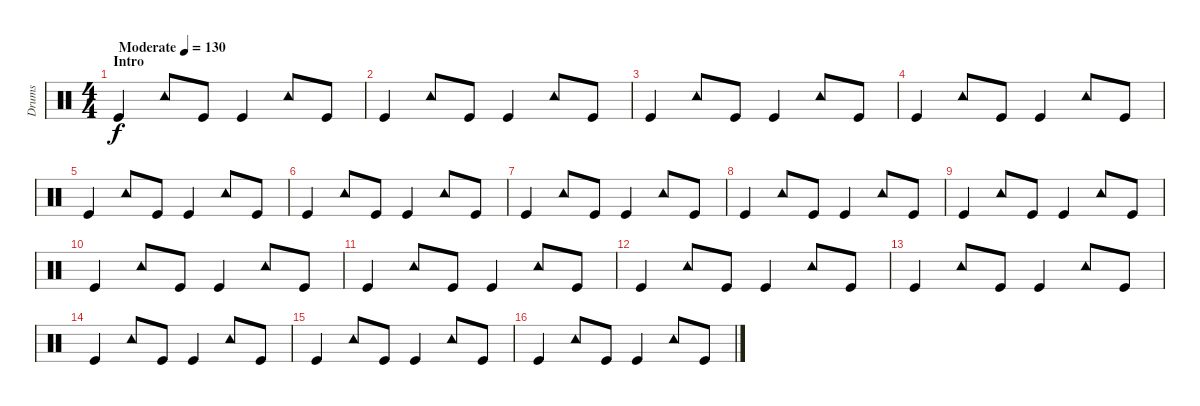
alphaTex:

\track ("Drums" "Drums") {instrument percussion}
\staff {score}
\articulation defaults
\ts (4 4)
\section ("" "Intro")
\tempo (130 "Moderate")
\clef neutral
\ks c "Kick (hit)".4{dy f volume 8} "Tambourine (hit)".8{volume 8} "Kick (hit)".8{volume 8} "Kick (hit)".4{volume 8} "Tambourine (hit)".8{volume 8} "Kick (hit)".8{volume 8}
|
"Kick (hit)".4 "Tambourine (hit)".8 "Kick (hit)".8 "Kick (hit)".4 "Tambourine (hit)".8 "Kick (hit)".8 |
"Kick (hit)".4 "Tambourine (hit)".8 "Kick (hit)".8 "Kick (hit)".4 "Tambourine (hit)".8 "Kick (hit)".8 |
"Kick (hit)".4 "Tambourine (hit)".8 "Kick (hit)".8 "Kick (hit)".4 "Tambourine (hit)".8 "Kick (hit)".8 |
"Kick (hit)".4 "Tambourine (hit)".8 "Kick (hit)".8 "Kick (hit)".4 "Tambourine (hit)".8 "Kick (hit)".8 |
"Kick (hit)".4 "Tambourine (hit)".8 "Kick (hit)".8 "Kick (hit)".4 "Tambourine (hit)".8 "Kick (hit)".8 |
"Kick (hit)".4 "Tambourine (hit)".8 "Kick (hit)".8 "Kick (hit)".4 "Tambourine (hit)".8 "Kick (hit)".8 |
"Kick (hit)".4 "Tambourine (hit)".8 "Kick (hit)".8 "Kick (hit)".4 "Tambourine (hit)".8 "Kick (hit)".8 |
"Kick (hit)".4 "Tambourine (hit)".8 "Kick (hit)".8 "Kick (hit)".4 "Tambourine (hit)".8 "Kick (hit)".8 |
"Kick (hit)".4 "Tambourine (hit)".8 "Kick (hit)".8 "Kick (hit)".4 "Tambourine (hit)".8 "Kick (hit)".8 |
"Kick (hit)".4 "Tambourine (hit)".8 "Kick (hit)".8 "Kick (hit)".4 "Tambourine (hit)".8 "Kick (hit)".8 |
"Kick (hit)".4 "Tambourine (hit)".8 "Kick (hit)".8 "Kick (hit)".4 "Tambourine (hit)".8 "Kick (hit)".8 |
"Kick (hit)".4 "Tambourine (hit)".8 "Kick (hit)".8 "Kick (hit)".4 "Tambourine (hit)".8 "Kick (hit)".8 |
"Kick (hit)".4 "Tambourine (hit)".8 "Kick (hit)".8 "Kick (hit)".4 "Tambourine (hit)".8 "Kick (hit)".8 |
"Kick (hit)".4 "Tambourine (hit)".8 "Kick (hit)".8 "Kick (hit)".4 "Tambourine (hit)".8 "Kick (hit)".8 |
"Kick (hit)".4 "Tambourine (hit)".8 "Kick (hit)".8 "Kick (hit)".4 "Tambourine (hit)".8 "Kick (hit)".8
